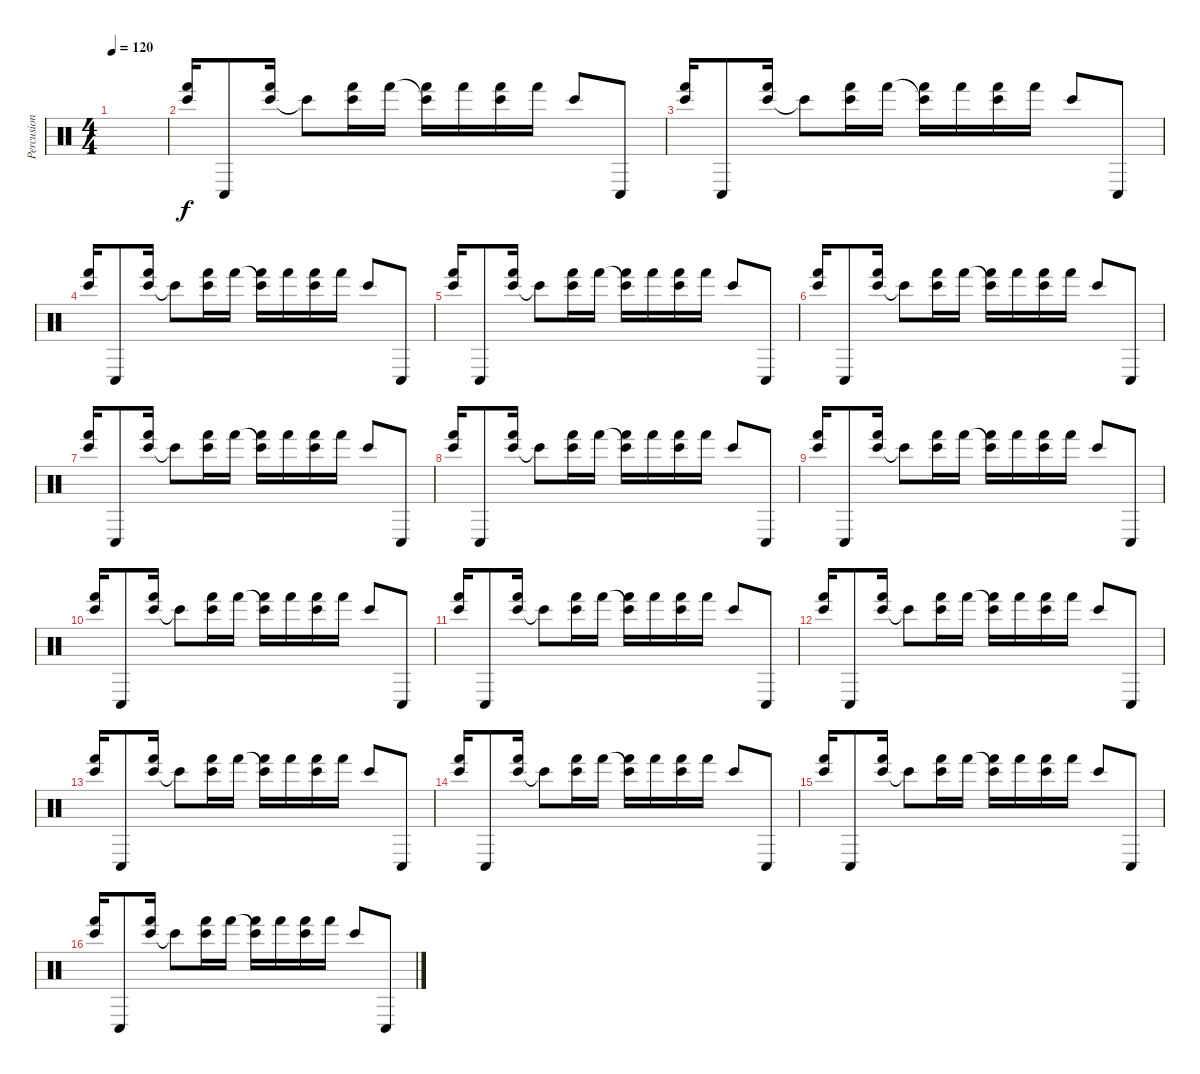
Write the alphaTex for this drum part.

\track ("Percusion" "Percusion") {instrument percussion}
\staff {score}
\articulation defaults
\ts (4 4)
\tempo 120
\clef neutral
\ks c
|
("Bongo High (hit)" "Hand (hit)").16 "Conga low (hit)".8 ("Bongo High (hit)" "Hand (hit)").16 "Bongo High (hit)"{t}.8 ("Bongo High (hit)" "Hand (hit)").16 "Hand (hit)".16 ("Bongo High (hit)"{t} "Hand (hit)").16 "Hand (hit)".16 ("Bongo High (hit)" "Hand (hit)").16 "Hand (hit)".16 "Bongo High (hit)".8 "Conga low (hit)".8 |
("Bongo High (hit)" "Hand (hit)").16 "Conga low (hit)".8 ("Bongo High (hit)" "Hand (hit)").16 "Bongo High (hit)"{t}.8 ("Bongo High (hit)" "Hand (hit)").16 "Hand (hit)".16 ("Bongo High (hit)"{t} "Hand (hit)").16 "Hand (hit)".16 ("Bongo High (hit)" "Hand (hit)").16 "Hand (hit)".16 "Bongo High (hit)".8 "Conga low (hit)".8 |
("Bongo High (hit)" "Hand (hit)").16 "Conga low (hit)".8 ("Bongo High (hit)" "Hand (hit)").16 "Bongo High (hit)"{t}.8 ("Bongo High (hit)" "Hand (hit)").16 "Hand (hit)".16 ("Bongo High (hit)"{t} "Hand (hit)").16 "Hand (hit)".16 ("Bongo High (hit)" "Hand (hit)").16 "Hand (hit)".16 "Bongo High (hit)".8 "Conga low (hit)".8 |
("Bongo High (hit)" "Hand (hit)").16 "Conga low (hit)".8 ("Bongo High (hit)" "Hand (hit)").16 "Bongo High (hit)"{t}.8 ("Bongo High (hit)" "Hand (hit)").16 "Hand (hit)".16 ("Bongo High (hit)"{t} "Hand (hit)").16 "Hand (hit)".16 ("Bongo High (hit)" "Hand (hit)").16 "Hand (hit)".16 "Bongo High (hit)".8 "Conga low (hit)".8 |
("Bongo High (hit)" "Hand (hit)").16 "Conga low (hit)".8 ("Bongo High (hit)" "Hand (hit)").16 "Bongo High (hit)"{t}.8 ("Bongo High (hit)" "Hand (hit)").16 "Hand (hit)".16 ("Bongo High (hit)"{t} "Hand (hit)").16 "Hand (hit)".16 ("Bongo High (hit)" "Hand (hit)").16 "Hand (hit)".16 "Bongo High (hit)".8 "Conga low (hit)".8 |
("Bongo High (hit)" "Hand (hit)").16 "Conga low (hit)".8 ("Bongo High (hit)" "Hand (hit)").16 "Bongo High (hit)"{t}.8 ("Bongo High (hit)" "Hand (hit)").16 "Hand (hit)".16 ("Bongo High (hit)"{t} "Hand (hit)").16 "Hand (hit)".16 ("Bongo High (hit)" "Hand (hit)").16 "Hand (hit)".16 "Bongo High (hit)".8 "Conga low (hit)".8 |
("Bongo High (hit)" "Hand (hit)").16 "Conga low (hit)".8 ("Bongo High (hit)" "Hand (hit)").16 "Bongo High (hit)"{t}.8 ("Bongo High (hit)" "Hand (hit)").16 "Hand (hit)".16 ("Bongo High (hit)"{t} "Hand (hit)").16 "Hand (hit)".16 ("Bongo High (hit)" "Hand (hit)").16 "Hand (hit)".16 "Bongo High (hit)".8 "Conga low (hit)".8 |
("Bongo High (hit)" "Hand (hit)").16 "Conga low (hit)".8 ("Bongo High (hit)" "Hand (hit)").16 "Bongo High (hit)"{t}.8 ("Bongo High (hit)" "Hand (hit)").16 "Hand (hit)".16 ("Bongo High (hit)"{t} "Hand (hit)").16 "Hand (hit)".16 ("Bongo High (hit)" "Hand (hit)").16 "Hand (hit)".16 "Bongo High (hit)".8 "Conga low (hit)".8 |
("Bongo High (hit)" "Hand (hit)").16 "Conga low (hit)".8 ("Bongo High (hit)" "Hand (hit)").16 "Bongo High (hit)"{t}.8 ("Bongo High (hit)" "Hand (hit)").16 "Hand (hit)".16 ("Bongo High (hit)"{t} "Hand (hit)").16 "Hand (hit)".16 ("Bongo High (hit)" "Hand (hit)").16 "Hand (hit)".16 "Bongo High (hit)".8 "Conga low (hit)".8 |
("Bongo High (hit)" "Hand (hit)").16 "Conga low (hit)".8 ("Bongo High (hit)" "Hand (hit)").16 "Bongo High (hit)"{t}.8 ("Bongo High (hit)" "Hand (hit)").16 "Hand (hit)".16 ("Bongo High (hit)"{t} "Hand (hit)").16 "Hand (hit)".16 ("Bongo High (hit)" "Hand (hit)").16 "Hand (hit)".16 "Bongo High (hit)".8 "Conga low (hit)".8 |
("Bongo High (hit)" "Hand (hit)").16 "Conga low (hit)".8 ("Bongo High (hit)" "Hand (hit)").16 "Bongo High (hit)"{t}.8 ("Bongo High (hit)" "Hand (hit)").16 "Hand (hit)".16 ("Bongo High (hit)"{t} "Hand (hit)").16 "Hand (hit)".16 ("Bongo High (hit)" "Hand (hit)").16 "Hand (hit)".16 "Bongo High (hit)".8 "Conga low (hit)".8 |
("Bongo High (hit)" "Hand (hit)").16 "Conga low (hit)".8 ("Bongo High (hit)" "Hand (hit)").16 "Bongo High (hit)"{t}.8 ("Bongo High (hit)" "Hand (hit)").16 "Hand (hit)".16 ("Bongo High (hit)"{t} "Hand (hit)").16 "Hand (hit)".16 ("Bongo High (hit)" "Hand (hit)").16 "Hand (hit)".16 "Bongo High (hit)".8 "Conga low (hit)".8 |
("Bongo High (hit)" "Hand (hit)").16 "Conga low (hit)".8 ("Bongo High (hit)" "Hand (hit)").16 "Bongo High (hit)"{t}.8 ("Bongo High (hit)" "Hand (hit)").16 "Hand (hit)".16 ("Bongo High (hit)"{t} "Hand (hit)").16 "Hand (hit)".16 ("Bongo High (hit)" "Hand (hit)").16 "Hand (hit)".16 "Bongo High (hit)".8 "Conga low (hit)".8 |
("Bongo High (hit)" "Hand (hit)").16 "Conga low (hit)".8 ("Bongo High (hit)" "Hand (hit)").16 "Bongo High (hit)"{t}.8 ("Bongo High (hit)" "Hand (hit)").16 "Hand (hit)".16 ("Bongo High (hit)"{t} "Hand (hit)").16 "Hand (hit)".16 ("Bongo High (hit)" "Hand (hit)").16 "Hand (hit)".16 "Bongo High (hit)".8 "Conga low (hit)".8 |
("Bongo High (hit)" "Hand (hit)").16 "Conga low (hit)".8 ("Bongo High (hit)" "Hand (hit)").16 "Bongo High (hit)"{t}.8 ("Bongo High (hit)" "Hand (hit)").16 "Hand (hit)".16 ("Bongo High (hit)"{t} "Hand (hit)").16 "Hand (hit)".16 ("Bongo High (hit)" "Hand (hit)").16 "Hand (hit)".16 "Bongo High (hit)".8 "Conga low (hit)".8
